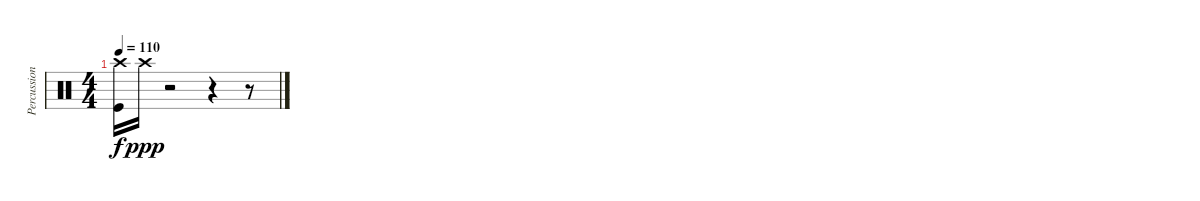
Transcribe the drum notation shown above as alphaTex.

\track ("Percussion" "Percussion") {instrument percussion}
\staff {score}
\articulation defaults
\ts (4 4)
\tempo 110
\clef neutral
\ks c
("Crash high (hit)" "Kick (hit)").16{dy f} "Crash high (hit)".16{dy ppp} r.2 r.4 r.8
